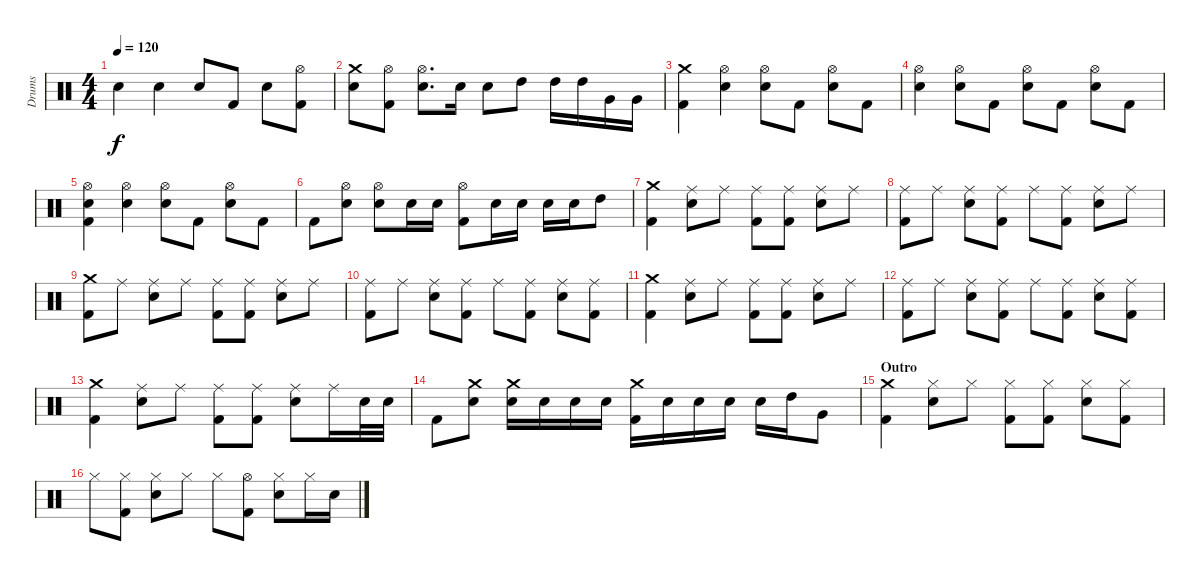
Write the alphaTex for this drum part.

\track ("Drums" "Drums") {instrument percussion}
\staff {score}
\articulation defaults
\ts (4 4)
\tempo 120
\clef neutral
\ks c "Snare (hit) 2".4{dy f} "Snare (hit) 2".4 "Snare (hit) 2".8 "Kick (hit) 2".8 "Snare (hit) 2".8
("Hi-Hat (open)" "Kick (hit) 2").8 |
("Crash medium (hit)" "Snare (hit) 2").8 ("Hi-Hat (open)" "Kick (hit) 2").8 ("Hi-Hat (open)" "Snare (hit) 2").8{d} "Snare (hit) 2".16 "Snare (hit) 2".8 "High Tom (hit)".8 "High Tom (hit)".16 "High Tom (hit)".16 "Very Low Tom (hit)".16 "Very Low Tom (hit)".16 |
("Crash medium (hit)" "Kick (hit) 2").4 ("Hi-Hat (open)" "Snare (hit) 2").4 ("Hi-Hat (open)" "Snare (hit) 2").8 "Kick (hit) 2".8 ("Hi-Hat (open)" "Snare (hit) 2").8 "Kick (hit) 2".8 |
("Hi-Hat (open)" "Snare (hit) 2").4 ("Hi-Hat (open)" "Snare (hit) 2").8 "Kick (hit) 2".8 ("Hi-Hat (open)" "Snare (hit) 2").8 "Kick (hit) 2".8 ("Hi-Hat (open)" "Snare (hit) 2").8 "Kick (hit) 2".8 |
("Hi-Hat (open)" "Snare (hit) 2" "Kick (hit) 2").4 ("Hi-Hat (open)" "Snare (hit) 2").4 ("Hi-Hat (open)" "Snare (hit) 2").8 "Kick (hit) 2".8 ("Hi-Hat (open)" "Snare (hit) 2").8 "Kick (hit) 2".8 |
"Kick (hit) 2".8 ("Hi-Hat (open)" "Snare (hit) 2").8 ("Hi-Hat (open)" "Snare (hit) 2").8 "Snare (hit) 2".16 "Snare (hit) 2".16 ("Hi-Hat (open)" "Kick (hit) 2").8 "Snare (hit) 2".16 "Snare (hit) 2".16 "Snare (hit) 2".16 "Snare (hit) 2".16 "High Tom (hit)".8 |
("Crash medium (hit)" "Kick (hit) 2").4 ("Ride (middle)" "Snare (hit) 2").8 "Ride (middle)".8 ("Ride (middle)" "Kick (hit) 2").8 ("Ride (middle)" "Kick (hit) 2").8 ("Ride (middle)" "Snare (hit) 2").8 "Ride (middle)".8 |
("Ride (middle)" "Kick (hit) 2").8 "Ride (middle)".8 ("Ride (middle)" "Snare (hit) 2").8 ("Ride (middle)" "Kick (hit) 2").8 "Ride (middle)".8 ("Ride (middle)" "Kick (hit) 2").8 ("Ride (middle)" "Snare (hit) 2").8 "Ride (middle)".8 |
("Crash medium (hit)" "Kick (hit) 2").8 "Ride (middle)".8 ("Ride (middle)" "Snare (hit) 2").8 "Ride (middle)".8 ("Ride (middle)" "Kick (hit) 2").8 ("Ride (middle)" "Kick (hit) 2").8 ("Ride (middle)" "Snare (hit) 2").8 "Ride (middle)".8 |
("Ride (middle)" "Kick (hit) 2").8 "Ride (middle)".8 ("Ride (middle)" "Snare (hit) 2").8 ("Ride (middle)" "Kick (hit) 2").8 "Ride (middle)".8 ("Ride (middle)" "Kick (hit) 2").8 ("Ride (middle)" "Snare (hit) 2").8 ("Ride (middle)" "Kick (hit) 2").8 |
("Crash medium (hit)" "Kick (hit) 2").4 ("Ride (middle)" "Snare (hit) 2").8 "Ride (middle)".8 ("Ride (middle)" "Kick (hit) 2").8 ("Ride (middle)" "Kick (hit) 2").8 ("Ride (middle)" "Snare (hit) 2").8 "Ride (middle)".8 |
("Ride (middle)" "Kick (hit) 2").8 "Ride (middle)".8 ("Ride (middle)" "Snare (hit) 2").8 ("Ride (middle)" "Kick (hit) 2").8 "Ride (middle)".8 ("Ride (middle)" "Kick (hit) 2").8 ("Ride (middle)" "Snare (hit) 2").8 ("Ride (middle)" "Kick (hit) 2").8 |
("Crash medium (hit)" "Kick (hit) 2").4 ("Ride (middle)" "Snare (hit) 2").8 "Ride (middle)".8 ("Ride (middle)" "Kick (hit) 2").8 ("Ride (middle)" "Kick (hit) 2").8 ("Ride (middle)" "Snare (hit) 2").8 "Ride (middle)".16 "Snare (hit) 2".32 "Snare (hit) 2".32 |
"Kick (hit) 2".8 ("Crash medium (hit)" "Snare (hit) 2").8 ("Crash medium (hit)" "Snare (hit) 2").16 "Snare (hit) 2".16 "Snare (hit) 2".16 "Snare (hit) 2".16 ("Crash medium (hit)" "Kick (hit) 2").16 "Snare (hit) 2".16 "Snare (hit) 2".16 "Snare (hit) 2".16 "Snare (hit) 2".16 "High Tom (hit)".16 "Very Low Tom (hit)".8 |
\section ("" "Outro")
("Crash medium (hit)" "Kick (hit) 2").4 ("Hi-Hat (closed)" "Snare (hit) 2").8 "Hi-Hat (closed)".8 ("Hi-Hat (closed)" "Kick (hit) 2").8 ("Hi-Hat (closed)" "Kick (hit) 2").8 ("Hi-Hat (closed)" "Snare (hit) 2").8 ("Hi-Hat (closed)" "Kick (hit) 2").8 |
"Hi-Hat (closed)".8 ("Hi-Hat (closed)" "Kick (hit) 2").8 ("Hi-Hat (closed)" "Snare (hit) 2").8 "Hi-Hat (closed)".8 "Hi-Hat (closed)".8 ("Hi-Hat (open)" "Kick (hit) 2").8 ("Hi-Hat (closed)" "Snare (hit) 2").8 "Hi-Hat (closed)".16 "Snare (hit) 2".16
